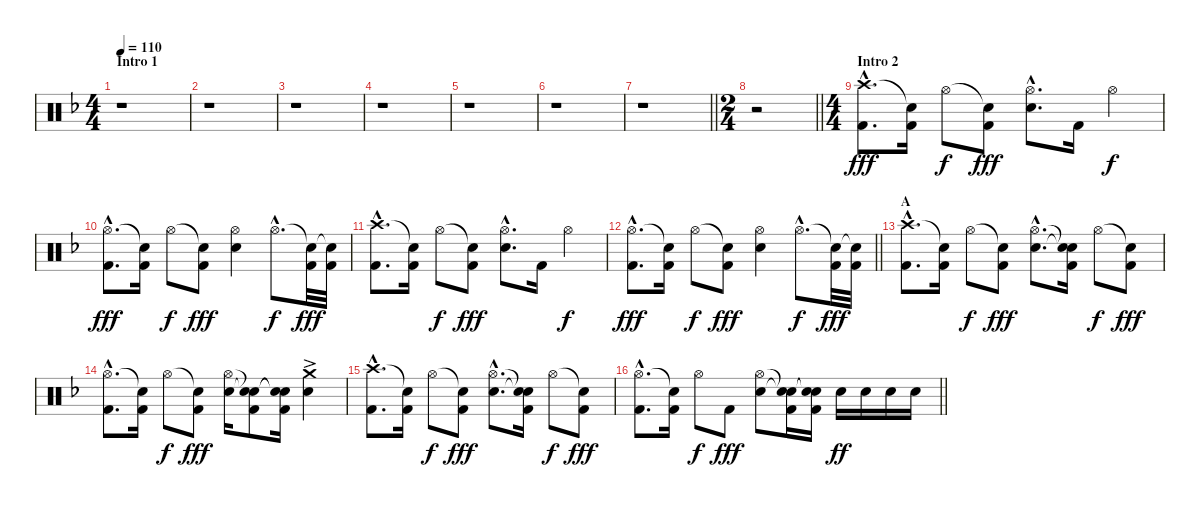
\track "" {instrument percussion}
\staff {score}
\articulation defaults
\ts (4 4)
\section ("" "Intro 1")
\tempo 110
\clef neutral
\ks dminor
r.1{dy fff} |
r.1 |
r.1 |
r.1 |
r.1 |
r.1 |
\barLineRight lightlight
r.1 |
\ts (2 4)
\barLineRight lightlight
r.2 |
\ts (4 4)
\section ("" "Intro 2")
("Crash high (hit)"{hac} "Kick (hit) 2"{hac}).8{d} ("Snare (hit)"{t} "Kick (hit) 2").16 "Hi-Hat (open)".8{dy f} ("Snare (hit)"{t} "Kick (hit) 2").8{dy fff} ("Hi-Hat (open)"{hac} "Electric Snare (hit)"{hac}).8{d} "Kick (hit) 2".16 "Hi-Hat (open)".4{dy f} |
("Hi-Hat (open)"{hac} "Kick (hit) 2"{hac}).8{d dy fff} ("Snare (hit)"{t} "Kick (hit) 2").16 "Hi-Hat (open)".8{dy f} ("Snare (hit)"{t} "Kick (hit) 2").8{dy fff} ("Hi-Hat (open)" "Electric Snare (hit)").4 "Hi-Hat (open)"{hac}.8{d dy f} ("Snare (hit)"{t} "Kick (hit) 2").32{dy fff} ("Snare (hit)"{t} "Kick (hit) 2").32 |
("Crash high (hit)"{hac} "Kick (hit) 2"{hac}).8{d} ("Snare (hit)"{t} "Kick (hit) 2").16 "Hi-Hat (open)".8{dy f} ("Snare (hit)"{t} "Kick (hit) 2").8{dy fff} ("Hi-Hat (open)"{hac} "Electric Snare (hit)"{hac}).8{d} "Kick (hit) 2".16 "Hi-Hat (open)".4{dy f} |
\barLineRight lightlight
("Hi-Hat (open)"{hac} "Kick (hit) 2"{hac}).8{d dy fff} ("Snare (hit)"{t} "Kick (hit) 2").16 "Hi-Hat (open)".8{dy f} ("Snare (hit)"{t} "Kick (hit) 2").8{dy fff} ("Hi-Hat (open)" "Electric Snare (hit)").4 "Hi-Hat (open)"{hac}.8{d dy f} ("Snare (hit)"{t} "Kick (hit) 2").32{dy fff} ("Snare (hit)"{t} "Kick (hit) 2").32 |
\section ("" "A")
("Crash high (hit)"{hac} "Kick (hit) 2"{hac}).8{d} ("Snare (hit)"{t} "Kick (hit) 2").16 "Hi-Hat (open)".8{dy f} ("Snare (hit)"{t} "Kick (hit) 2").8{dy fff} ("Hi-Hat (open)"{hac} "Electric Snare (hit)"{hac}).8{d} ("Snare (hit)"{t} "Snare (hit)"{t} "Kick (hit) 2").16 "Hi-Hat (open)".8{dy f} ("Snare (hit)"{t} "Kick (hit) 2").8{dy fff} |
("Hi-Hat (open)"{hac} "Kick (hit) 2"{hac}).8{d} ("Snare (hit)"{t} "Kick (hit) 2").16 "Hi-Hat (open)".8{dy f} ("Snare (hit)"{t} "Kick (hit) 2").8{dy fff} ("Hi-Hat (open)" "Electric Snare (hit)").16 ("Snare (hit)"{t} "Snare (hit)"{t} "Kick (hit) 2").8 ("Snare (hit)"{t} "Snare (hit)"{t} "Kick (hit) 2").16 ("Crash medium (hit)"{ac} "Electric Snare (hit)").4 |
("Crash high (hit)"{hac} "Kick (hit) 2"{hac}).8{d} ("Snare (hit)"{t} "Kick (hit) 2").16 "Hi-Hat (open)".8{dy f} ("Snare (hit)"{t} "Kick (hit) 2").8{dy fff} ("Hi-Hat (open)"{hac} "Electric Snare (hit)"{hac}).8{d} ("Snare (hit)"{t} "Snare (hit)"{t} "Kick (hit) 2").16 "Hi-Hat (open)".8{dy f} ("Snare (hit)"{t} "Kick (hit) 2").8{dy fff} |
\barLineRight lightlight
("Hi-Hat (open)"{hac} "Kick (hit) 2"{hac}).8{d} ("Snare (hit)"{t} "Kick (hit) 2").16 "Hi-Hat (open)".8{dy f} "Kick (hit) 2".8{dy fff} ("Hi-Hat (open)" "Electric Snare (hit)").8 ("Snare (hit)"{t} "Snare (hit)"{t} "Kick (hit) 2").16 ("Snare (hit)"{t} "Snare (hit)"{t} "Kick (hit) 2").16 "Electric Snare (hit)".16{dy ff} "Electric Snare (hit)".16 "Electric Snare (hit)".16 "Electric Snare (hit)".16
